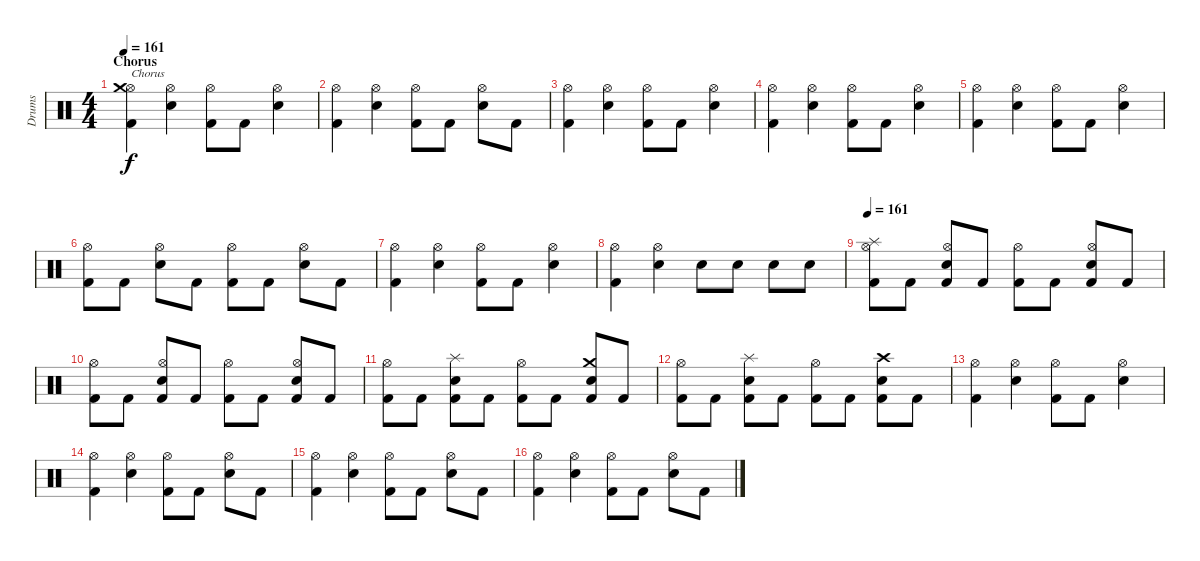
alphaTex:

\track ("Drums" "Drums") {instrument percussion}
\staff {score}
\articulation defaults
\ts (4 4)
\section ("" "Chorus")
\tempo 161
\clef neutral
\ks c
("Kick (hit) 2" "Hi-Hat (open)" "Crash medium (hit)").4{txt "Chorus" dy f} ("Electric Snare (hit)" "Hi-Hat (open)").4 ("Kick (hit) 2" "Hi-Hat (open)").8 "Kick (hit) 2".8 ("Electric Snare (hit)" "Hi-Hat (open)").4 |
("Kick (hit) 2" "Hi-Hat (open)").4 ("Electric Snare (hit)" "Hi-Hat (open)").4 ("Kick (hit) 2" "Hi-Hat (open)").8 "Kick (hit) 2".8 ("Electric Snare (hit)" "Hi-Hat (open)").8 "Kick (hit) 2".8 |
("Kick (hit) 2" "Hi-Hat (open)").4 ("Electric Snare (hit)" "Hi-Hat (open)").4 ("Kick (hit) 2" "Hi-Hat (open)").8 "Kick (hit) 2".8 ("Electric Snare (hit)" "Hi-Hat (open)").4 |
("Kick (hit) 2" "Hi-Hat (open)").4 ("Electric Snare (hit)" "Hi-Hat (open)").4 ("Kick (hit) 2" "Hi-Hat (open)").8 "Kick (hit) 2".8 ("Electric Snare (hit)" "Hi-Hat (open)").4 |
("Kick (hit) 2" "Hi-Hat (open)").4 ("Electric Snare (hit)" "Hi-Hat (open)").4 ("Kick (hit) 2" "Hi-Hat (open)").8 "Kick (hit) 2".8 ("Electric Snare (hit)" "Hi-Hat (open)").4 |
("Kick (hit) 2" "Hi-Hat (open)").8 "Kick (hit) 2".8 ("Electric Snare (hit)" "Hi-Hat (open)").8 "Kick (hit) 2".8 ("Kick (hit) 2" "Hi-Hat (open)").8 "Kick (hit) 2".8 ("Electric Snare (hit)" "Hi-Hat (open)").8 "Kick (hit) 2".8 |
("Kick (hit) 2" "Hi-Hat (open)").4 ("Electric Snare (hit)" "Hi-Hat (open)").4 ("Kick (hit) 2" "Hi-Hat (open)").8 "Kick (hit) 2".8 ("Electric Snare (hit)" "Hi-Hat (open)").4 |
("Kick (hit) 2" "Hi-Hat (open)").4 ("Electric Snare (hit)" "Hi-Hat (open)").4 "Electric Snare (hit)".8 "Electric Snare (hit)".8 "Electric Snare (hit)".8 "Electric Snare (hit)".8 |
\tempo 161
("Kick (hit) 2" "Hi-Hat (open)" "Splash (hit)").8 "Kick (hit) 2".8 ("Kick (hit) 2" "Electric Snare (hit)" "Hi-Hat (open)").8 "Kick (hit) 2".8 ("Kick (hit) 2" "Hi-Hat (open)").8 "Kick (hit) 2".8 ("Kick (hit) 2" "Electric Snare (hit)" "Hi-Hat (open)").8 "Kick (hit) 2".8 |
("Kick (hit) 2" "Hi-Hat (open)").8 "Kick (hit) 2".8 ("Kick (hit) 2" "Electric Snare (hit)" "Hi-Hat (open)").8 "Kick (hit) 2".8 ("Kick (hit) 2" "Hi-Hat (open)").8 "Kick (hit) 2".8 ("Kick (hit) 2" "Electric Snare (hit)" "Hi-Hat (open)").8 "Kick (hit) 2".8 |
("Kick (hit) 2" "Hi-Hat (open)").8 "Kick (hit) 2".8 ("Kick (hit) 2" "Electric Snare (hit)" "Splash (hit)").8 "Kick (hit) 2".8 ("Kick (hit) 2" "Hi-Hat (open)").8 "Kick (hit) 2".8 ("Kick (hit) 2" "Electric Snare (hit)" "Crash medium (hit)").8 "Kick (hit) 2".8 |
("Kick (hit) 2" "Hi-Hat (open)").8 "Kick (hit) 2".8 ("Kick (hit) 2" "Electric Snare (hit)" "Splash (hit)").8 "Kick (hit) 2".8 ("Kick (hit) 2" "Hi-Hat (open)").8 "Kick (hit) 2".8 ("Kick (hit) 2" "Electric Snare (hit)" "Crash high (hit)").8 "Kick (hit) 2".8 |
("Kick (hit) 2" "Hi-Hat (open)").4 ("Electric Snare (hit)" "Hi-Hat (open)").4 ("Kick (hit) 2" "Hi-Hat (open)").8 "Kick (hit) 2".8 ("Electric Snare (hit)" "Hi-Hat (open)").4 |
("Kick (hit) 2" "Hi-Hat (open)").4 ("Electric Snare (hit)" "Hi-Hat (open)").4 ("Kick (hit) 2" "Hi-Hat (open)").8 "Kick (hit) 2".8 ("Electric Snare (hit)" "Hi-Hat (open)").8 "Kick (hit) 2".8 |
("Kick (hit) 2" "Hi-Hat (open)").4 ("Electric Snare (hit)" "Hi-Hat (open)").4 ("Kick (hit) 2" "Hi-Hat (open)").8 "Kick (hit) 2".8 ("Electric Snare (hit)" "Hi-Hat (open)").8 "Kick (hit) 2".8 |
("Kick (hit) 2" "Hi-Hat (open)").4 ("Electric Snare (hit)" "Hi-Hat (open)").4 ("Kick (hit) 2" "Hi-Hat (open)").8 "Kick (hit) 2".8 ("Electric Snare (hit)" "Hi-Hat (open)").8 "Kick (hit) 2".8
